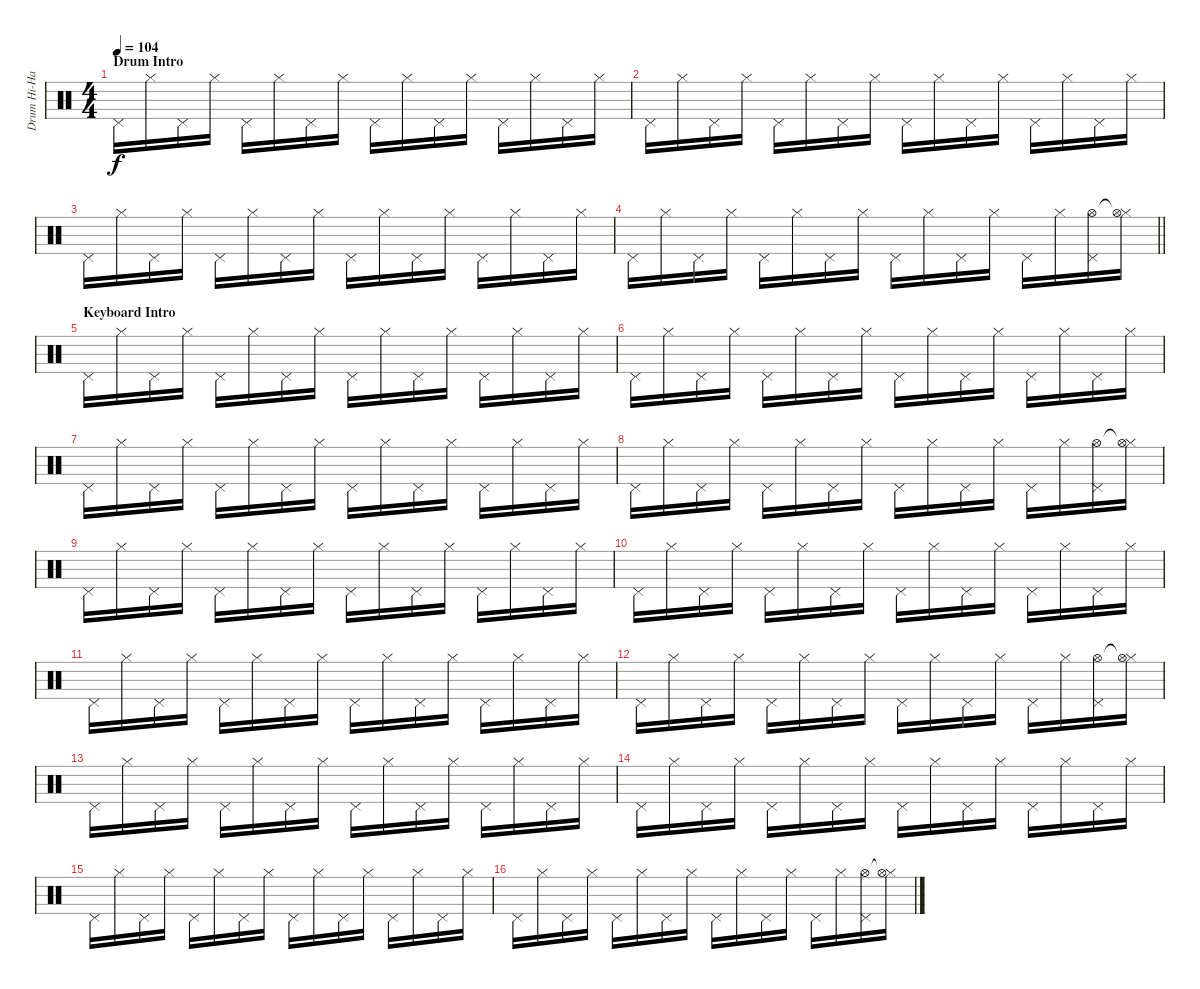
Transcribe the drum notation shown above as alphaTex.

\track ("Drum Hi-Hat" "Drum Hi-Ha") {instrument percussion}
\staff {score}
\articulation defaults
\ts (4 4)
\section ("" "Drum Intro")
\tempo 104
\clef neutral
\ks c "Pedal Hi-Hat (hit)".16{dy f} "Hi-Hat (closed)".16 "Pedal Hi-Hat (hit)".16 "Hi-Hat (closed)".16 "Pedal Hi-Hat (hit)".16 "Hi-Hat (closed)".16 "Pedal Hi-Hat (hit)".16 "Hi-Hat (closed)".16 "Pedal Hi-Hat (hit)".16 "Hi-Hat (closed)".16 "Pedal Hi-Hat (hit)".16 "Hi-Hat (closed)".16 "Pedal Hi-Hat (hit)".16 "Hi-Hat (closed)".16 "Pedal Hi-Hat (hit)".16 "Hi-Hat (closed)".16
|
"Pedal Hi-Hat (hit)".16 "Hi-Hat (closed)".16 "Pedal Hi-Hat (hit)".16 "Hi-Hat (closed)".16 "Pedal Hi-Hat (hit)".16 "Hi-Hat (closed)".16 "Pedal Hi-Hat (hit)".16 "Hi-Hat (closed)".16 "Pedal Hi-Hat (hit)".16 "Hi-Hat (closed)".16 "Pedal Hi-Hat (hit)".16 "Hi-Hat (closed)".16 "Pedal Hi-Hat (hit)".16 "Hi-Hat (closed)".16 "Pedal Hi-Hat (hit)".16 "Hi-Hat (closed)".16 |
"Pedal Hi-Hat (hit)".16 "Hi-Hat (closed)".16 "Pedal Hi-Hat (hit)".16 "Hi-Hat (closed)".16 "Pedal Hi-Hat (hit)".16 "Hi-Hat (closed)".16 "Pedal Hi-Hat (hit)".16 "Hi-Hat (closed)".16 "Pedal Hi-Hat (hit)".16 "Hi-Hat (closed)".16 "Pedal Hi-Hat (hit)".16 "Hi-Hat (closed)".16 "Pedal Hi-Hat (hit)".16 "Hi-Hat (closed)".16 "Pedal Hi-Hat (hit)".16 "Hi-Hat (closed)".16 |
\barLineRight lightlight "Pedal Hi-Hat (hit)".16 "Hi-Hat (closed)".16 "Pedal Hi-Hat (hit)".16 "Hi-Hat (closed)".16 "Pedal Hi-Hat (hit)".16 "Hi-Hat (closed)".16 "Pedal Hi-Hat (hit)".16 "Hi-Hat (closed)".16 "Pedal Hi-Hat (hit)".16 "Hi-Hat (closed)".16 "Pedal Hi-Hat (hit)".16 "Hi-Hat (closed)".16 "Pedal Hi-Hat (hit)".16 "Hi-Hat (closed)".16
("Pedal Hi-Hat (hit)" "Hi-Hat (open)").16 ("Hi-Hat (closed)" "Hi-Hat (open)"{t}).16 |
\section ("" "Keyboard Intro")
"Pedal Hi-Hat (hit)".16 "Hi-Hat (closed)".16 "Pedal Hi-Hat (hit)".16 "Hi-Hat (closed)".16 "Pedal Hi-Hat (hit)".16 "Hi-Hat (closed)".16 "Pedal Hi-Hat (hit)".16 "Hi-Hat (closed)".16 "Pedal Hi-Hat (hit)".16 "Hi-Hat (closed)".16 "Pedal Hi-Hat (hit)".16 "Hi-Hat (closed)".16 "Pedal Hi-Hat (hit)".16 "Hi-Hat (closed)".16 "Pedal Hi-Hat (hit)".16 "Hi-Hat (closed)".16 |
"Pedal Hi-Hat (hit)".16 "Hi-Hat (closed)".16 "Pedal Hi-Hat (hit)".16 "Hi-Hat (closed)".16 "Pedal Hi-Hat (hit)".16 "Hi-Hat (closed)".16 "Pedal Hi-Hat (hit)".16 "Hi-Hat (closed)".16 "Pedal Hi-Hat (hit)".16 "Hi-Hat (closed)".16 "Pedal Hi-Hat (hit)".16 "Hi-Hat (closed)".16 "Pedal Hi-Hat (hit)".16 "Hi-Hat (closed)".16 "Pedal Hi-Hat (hit)".16 "Hi-Hat (closed)".16 |
"Pedal Hi-Hat (hit)".16 "Hi-Hat (closed)".16 "Pedal Hi-Hat (hit)".16 "Hi-Hat (closed)".16 "Pedal Hi-Hat (hit)".16 "Hi-Hat (closed)".16 "Pedal Hi-Hat (hit)".16 "Hi-Hat (closed)".16 "Pedal Hi-Hat (hit)".16 "Hi-Hat (closed)".16 "Pedal Hi-Hat (hit)".16 "Hi-Hat (closed)".16 "Pedal Hi-Hat (hit)".16 "Hi-Hat (closed)".16 "Pedal Hi-Hat (hit)".16 "Hi-Hat (closed)".16 |
"Pedal Hi-Hat (hit)".16 "Hi-Hat (closed)".16 "Pedal Hi-Hat (hit)".16 "Hi-Hat (closed)".16 "Pedal Hi-Hat (hit)".16 "Hi-Hat (closed)".16 "Pedal Hi-Hat (hit)".16 "Hi-Hat (closed)".16 "Pedal Hi-Hat (hit)".16 "Hi-Hat (closed)".16 "Pedal Hi-Hat (hit)".16 "Hi-Hat (closed)".16 "Pedal Hi-Hat (hit)".16 "Hi-Hat (closed)".16 ("Pedal Hi-Hat (hit)" "Hi-Hat (open)").16 ("Hi-Hat (closed)" "Hi-Hat (open)"{t}).16 |
"Pedal Hi-Hat (hit)".16 "Hi-Hat (closed)".16 "Pedal Hi-Hat (hit)".16 "Hi-Hat (closed)".16 "Pedal Hi-Hat (hit)".16 "Hi-Hat (closed)".16 "Pedal Hi-Hat (hit)".16 "Hi-Hat (closed)".16 "Pedal Hi-Hat (hit)".16 "Hi-Hat (closed)".16 "Pedal Hi-Hat (hit)".16 "Hi-Hat (closed)".16 "Pedal Hi-Hat (hit)".16 "Hi-Hat (closed)".16 "Pedal Hi-Hat (hit)".16 "Hi-Hat (closed)".16 |
"Pedal Hi-Hat (hit)".16 "Hi-Hat (closed)".16 "Pedal Hi-Hat (hit)".16 "Hi-Hat (closed)".16 "Pedal Hi-Hat (hit)".16 "Hi-Hat (closed)".16 "Pedal Hi-Hat (hit)".16 "Hi-Hat (closed)".16 "Pedal Hi-Hat (hit)".16 "Hi-Hat (closed)".16 "Pedal Hi-Hat (hit)".16 "Hi-Hat (closed)".16 "Pedal Hi-Hat (hit)".16 "Hi-Hat (closed)".16 "Pedal Hi-Hat (hit)".16 "Hi-Hat (closed)".16 |
"Pedal Hi-Hat (hit)".16 "Hi-Hat (closed)".16 "Pedal Hi-Hat (hit)".16 "Hi-Hat (closed)".16 "Pedal Hi-Hat (hit)".16 "Hi-Hat (closed)".16 "Pedal Hi-Hat (hit)".16 "Hi-Hat (closed)".16 "Pedal Hi-Hat (hit)".16 "Hi-Hat (closed)".16 "Pedal Hi-Hat (hit)".16 "Hi-Hat (closed)".16 "Pedal Hi-Hat (hit)".16 "Hi-Hat (closed)".16 "Pedal Hi-Hat (hit)".16 "Hi-Hat (closed)".16 |
"Pedal Hi-Hat (hit)".16 "Hi-Hat (closed)".16 "Pedal Hi-Hat (hit)".16 "Hi-Hat (closed)".16 "Pedal Hi-Hat (hit)".16 "Hi-Hat (closed)".16 "Pedal Hi-Hat (hit)".16 "Hi-Hat (closed)".16 "Pedal Hi-Hat (hit)".16 "Hi-Hat (closed)".16 "Pedal Hi-Hat (hit)".16 "Hi-Hat (closed)".16 "Pedal Hi-Hat (hit)".16 "Hi-Hat (closed)".16 ("Pedal Hi-Hat (hit)" "Hi-Hat (open)").16 ("Hi-Hat (closed)" "Hi-Hat (open)"{t}).16 |
"Pedal Hi-Hat (hit)".16 "Hi-Hat (closed)".16 "Pedal Hi-Hat (hit)".16 "Hi-Hat (closed)".16 "Pedal Hi-Hat (hit)".16 "Hi-Hat (closed)".16 "Pedal Hi-Hat (hit)".16 "Hi-Hat (closed)".16 "Pedal Hi-Hat (hit)".16 "Hi-Hat (closed)".16 "Pedal Hi-Hat (hit)".16 "Hi-Hat (closed)".16 "Pedal Hi-Hat (hit)".16 "Hi-Hat (closed)".16 "Pedal Hi-Hat (hit)".16 "Hi-Hat (closed)".16 |
"Pedal Hi-Hat (hit)".16 "Hi-Hat (closed)".16 "Pedal Hi-Hat (hit)".16 "Hi-Hat (closed)".16 "Pedal Hi-Hat (hit)".16 "Hi-Hat (closed)".16 "Pedal Hi-Hat (hit)".16 "Hi-Hat (closed)".16 "Pedal Hi-Hat (hit)".16 "Hi-Hat (closed)".16 "Pedal Hi-Hat (hit)".16 "Hi-Hat (closed)".16 "Pedal Hi-Hat (hit)".16 "Hi-Hat (closed)".16 "Pedal Hi-Hat (hit)".16 "Hi-Hat (closed)".16 |
"Pedal Hi-Hat (hit)".16 "Hi-Hat (closed)".16 "Pedal Hi-Hat (hit)".16 "Hi-Hat (closed)".16 "Pedal Hi-Hat (hit)".16 "Hi-Hat (closed)".16 "Pedal Hi-Hat (hit)".16 "Hi-Hat (closed)".16 "Pedal Hi-Hat (hit)".16 "Hi-Hat (closed)".16 "Pedal Hi-Hat (hit)".16 "Hi-Hat (closed)".16 "Pedal Hi-Hat (hit)".16 "Hi-Hat (closed)".16 "Pedal Hi-Hat (hit)".16 "Hi-Hat (closed)".16 |
"Pedal Hi-Hat (hit)".16 "Hi-Hat (closed)".16 "Pedal Hi-Hat (hit)".16 "Hi-Hat (closed)".16 "Pedal Hi-Hat (hit)".16 "Hi-Hat (closed)".16 "Pedal Hi-Hat (hit)".16 "Hi-Hat (closed)".16 "Pedal Hi-Hat (hit)".16 "Hi-Hat (closed)".16 "Pedal Hi-Hat (hit)".16 "Hi-Hat (closed)".16 "Pedal Hi-Hat (hit)".16 "Hi-Hat (closed)".16 ("Pedal Hi-Hat (hit)" "Hi-Hat (open)").16 ("Hi-Hat (closed)" "Hi-Hat (open)"{t}).16
